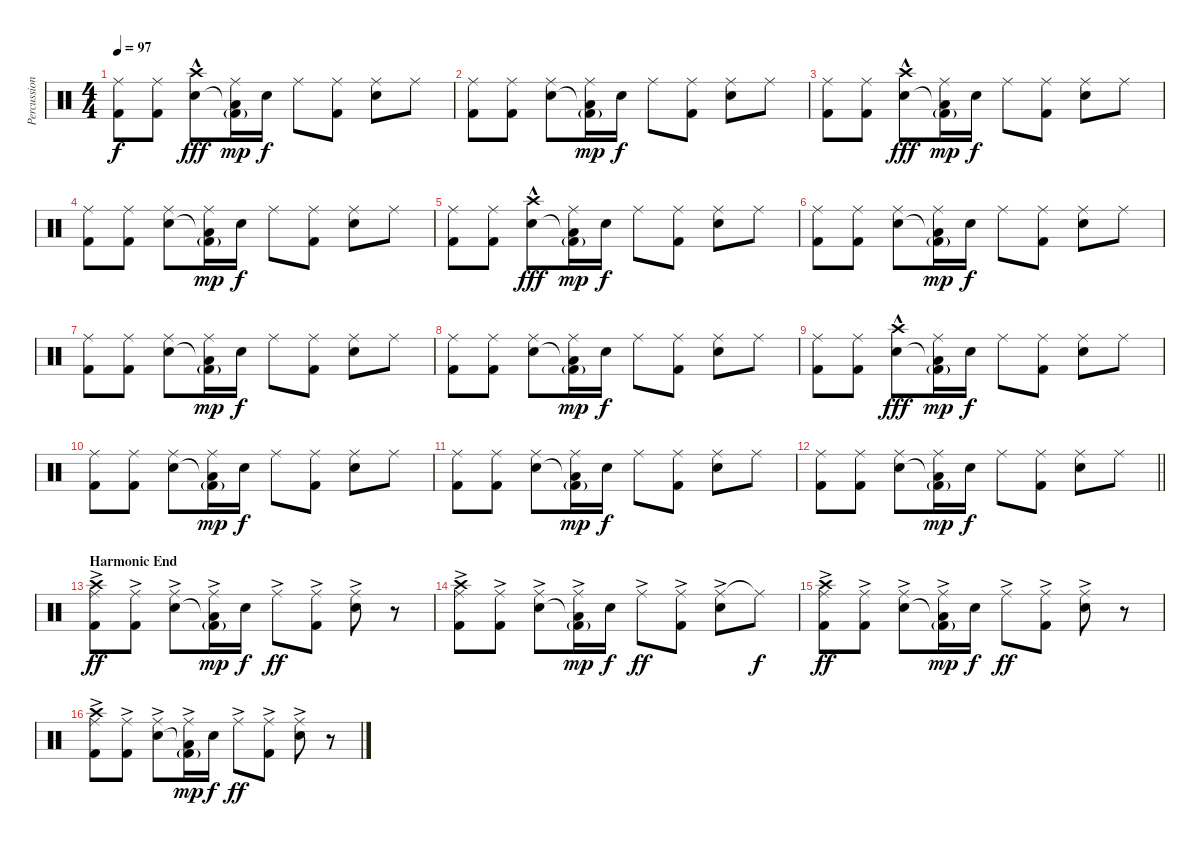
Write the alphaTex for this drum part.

\track ("Percussion" "Percussion") {instrument percussion}
\staff {score}
\articulation defaults
\ts (4 4)
\tempo 97
\clef neutral
\ks c
("Ride (middle)" "Kick (hit) 2").8{dy f} ("Ride (middle)" "Kick (hit) 2").8 ("Crash high (hit)"{hac} "Snare (hit) 2").8{dy fff} ("Ride (middle)" "Low Floor Tom (hit)"{t} "Kick (hit) 2"{g}).16{dy mp} "Snare (hit) 2".16{dy f} "Ride (middle)".8 ("Ride (middle)" "Kick (hit) 2").8 ("Ride (middle)" "Snare (hit) 2").8 "Ride (middle)".8 |
("Ride (middle)" "Kick (hit) 2").8 ("Ride (middle)" "Kick (hit) 2").8 ("Ride (middle)" "Snare (hit) 2").8 ("Ride (middle)" "Low Floor Tom (hit)"{t} "Kick (hit) 2"{g}).16{dy mp} "Snare (hit) 2".16{dy f} "Ride (middle)".8 ("Ride (middle)" "Kick (hit) 2").8 ("Ride (middle)" "Snare (hit) 2").8 "Ride (middle)".8 |
("Ride (middle)" "Kick (hit) 2").8 ("Ride (middle)" "Kick (hit) 2").8 ("Crash high (hit)"{hac} "Snare (hit) 2").8{dy fff} ("Ride (middle)" "Low Floor Tom (hit)"{t} "Kick (hit) 2"{g}).16{dy mp} "Snare (hit) 2".16{dy f} "Ride (middle)".8 ("Ride (middle)" "Kick (hit) 2").8 ("Ride (middle)" "Snare (hit) 2").8 "Ride (middle)".8 |
("Ride (middle)" "Kick (hit) 2").8 ("Ride (middle)" "Kick (hit) 2").8 ("Ride (middle)" "Snare (hit) 2").8 ("Ride (middle)" "Low Floor Tom (hit)"{t} "Kick (hit) 2"{g}).16{dy mp} "Snare (hit) 2".16{dy f} "Ride (middle)".8 ("Ride (middle)" "Kick (hit) 2").8 ("Ride (middle)" "Snare (hit) 2").8 "Ride (middle)".8 |
("Ride (middle)" "Kick (hit) 2").8 ("Ride (middle)" "Kick (hit) 2").8 ("Crash high (hit)"{hac} "Snare (hit) 2").8{dy fff} ("Ride (middle)" "Low Floor Tom (hit)"{t} "Kick (hit) 2"{g}).16{dy mp} "Snare (hit) 2".16{dy f} "Ride (middle)".8 ("Ride (middle)" "Kick (hit) 2").8 ("Ride (middle)" "Snare (hit) 2").8 "Ride (middle)".8 |
("Ride (middle)" "Kick (hit) 2").8 ("Ride (middle)" "Kick (hit) 2").8 ("Ride (middle)" "Snare (hit) 2").8 ("Ride (middle)" "Low Floor Tom (hit)"{t} "Kick (hit) 2"{g}).16{dy mp} "Snare (hit) 2".16{dy f} "Ride (middle)".8 ("Ride (middle)" "Kick (hit) 2").8 ("Ride (middle)" "Snare (hit) 2").8 "Ride (middle)".8 |
("Ride (middle)" "Kick (hit) 2").8 ("Ride (middle)" "Kick (hit) 2").8 ("Ride (middle)" "Snare (hit) 2").8 ("Ride (middle)" "Low Floor Tom (hit)"{t} "Kick (hit) 2"{g}).16{dy mp} "Snare (hit) 2".16{dy f} "Ride (middle)".8 ("Ride (middle)" "Kick (hit) 2").8 ("Ride (middle)" "Snare (hit) 2").8 "Ride (middle)".8 |
("Ride (middle)" "Kick (hit) 2").8 ("Ride (middle)" "Kick (hit) 2").8 ("Ride (middle)" "Snare (hit) 2").8 ("Ride (middle)" "Low Floor Tom (hit)"{t} "Kick (hit) 2"{g}).16{dy mp} "Snare (hit) 2".16{dy f} "Ride (middle)".8 ("Ride (middle)" "Kick (hit) 2").8 ("Ride (middle)" "Snare (hit) 2").8 "Ride (middle)".8 |
("Ride (middle)" "Kick (hit) 2").8 ("Ride (middle)" "Kick (hit) 2").8 ("Crash high (hit)"{hac} "Snare (hit) 2").8{dy fff} ("Ride (middle)" "Low Floor Tom (hit)"{t} "Kick (hit) 2"{g}).16{dy mp} "Snare (hit) 2".16{dy f} "Ride (middle)".8 ("Ride (middle)" "Kick (hit) 2").8 ("Ride (middle)" "Snare (hit) 2").8 "Ride (middle)".8 |
("Ride (middle)" "Kick (hit) 2").8 ("Ride (middle)" "Kick (hit) 2").8 ("Ride (middle)" "Snare (hit) 2").8 ("Ride (middle)" "Low Floor Tom (hit)"{t} "Kick (hit) 2"{g}).16{dy mp} "Snare (hit) 2".16{dy f} "Ride (middle)".8 ("Ride (middle)" "Kick (hit) 2").8 ("Ride (middle)" "Snare (hit) 2").8 "Ride (middle)".8 |
("Ride (middle)" "Kick (hit) 2").8 ("Ride (middle)" "Kick (hit) 2").8 ("Ride (middle)" "Snare (hit) 2").8 ("Ride (middle)" "Low Floor Tom (hit)"{t} "Kick (hit) 2"{g}).16{dy mp} "Snare (hit) 2".16{dy f} "Ride (middle)".8 ("Ride (middle)" "Kick (hit) 2").8 ("Ride (middle)" "Snare (hit) 2").8 "Ride (middle)".8 |
\barLineRight lightlight
("Ride (middle)" "Kick (hit) 2").8 ("Ride (middle)" "Kick (hit) 2").8 ("Ride (middle)" "Snare (hit) 2").8 ("Ride (middle)" "Low Floor Tom (hit)"{t} "Kick (hit) 2"{g}).16{dy mp} "Snare (hit) 2".16{dy f} "Ride (middle)".8 ("Ride (middle)" "Kick (hit) 2").8 ("Ride (middle)" "Snare (hit) 2").8 "Ride (middle)".8 |
\section ("" "Harmonic End")
("Ride (middle)"{ac} "Crash high (hit)" "Kick (hit) 2").8{dy ff} ("Ride (middle)"{ac} "Kick (hit) 2").8 ("Ride (middle)"{ac} "Snare (hit) 2").8 ("Ride (middle)"{ac} "Low Floor Tom (hit)"{t} "Kick (hit) 2"{g}).16{dy mp} "Snare (hit) 2".16{dy f} "Ride (middle)"{ac}.8{dy ff} ("Ride (middle)"{ac} "Kick (hit) 2").8 ("Ride (middle)"{ac} "Snare (hit) 2").8 r.8 |
("Ride (middle)"{ac} "Crash high (hit)" "Kick (hit) 2").8 ("Ride (middle)"{ac} "Kick (hit) 2").8 ("Ride (middle)"{ac} "Snare (hit) 2").8 ("Ride (middle)"{ac} "Low Floor Tom (hit)"{t} "Kick (hit) 2"{g}).16{dy mp} "Snare (hit) 2".16{dy f} "Ride (middle)"{ac}.8{dy ff} ("Ride (middle)"{ac} "Kick (hit) 2").8 ("Ride (middle)"{ac} "Snare (hit) 2").8 "Ride (middle)"{t}.8{dy f} |
("Ride (middle)"{ac} "Crash high (hit)" "Kick (hit) 2").8{dy ff} ("Ride (middle)"{ac} "Kick (hit) 2").8 ("Ride (middle)"{ac} "Snare (hit) 2").8 ("Ride (middle)"{ac} "Low Floor Tom (hit)"{t} "Kick (hit) 2"{g}).16{dy mp} "Snare (hit) 2".16{dy f} "Ride (middle)"{ac}.8{dy ff} ("Ride (middle)"{ac} "Kick (hit) 2").8 ("Ride (middle)"{ac} "Snare (hit) 2").8 r.8 |
("Ride (middle)"{ac} "Crash high (hit)" "Kick (hit) 2").8 ("Ride (middle)"{ac} "Kick (hit) 2").8 ("Ride (middle)"{ac} "Snare (hit) 2").8 ("Ride (middle)"{ac} "Low Floor Tom (hit)"{t} "Kick (hit) 2"{g}).16{dy mp} "Snare (hit) 2".16{dy f} "Ride (middle)"{ac}.8{dy ff} ("Ride (middle)"{ac} "Kick (hit) 2").8 ("Ride (middle)"{ac} "Snare (hit) 2").8 r.8
